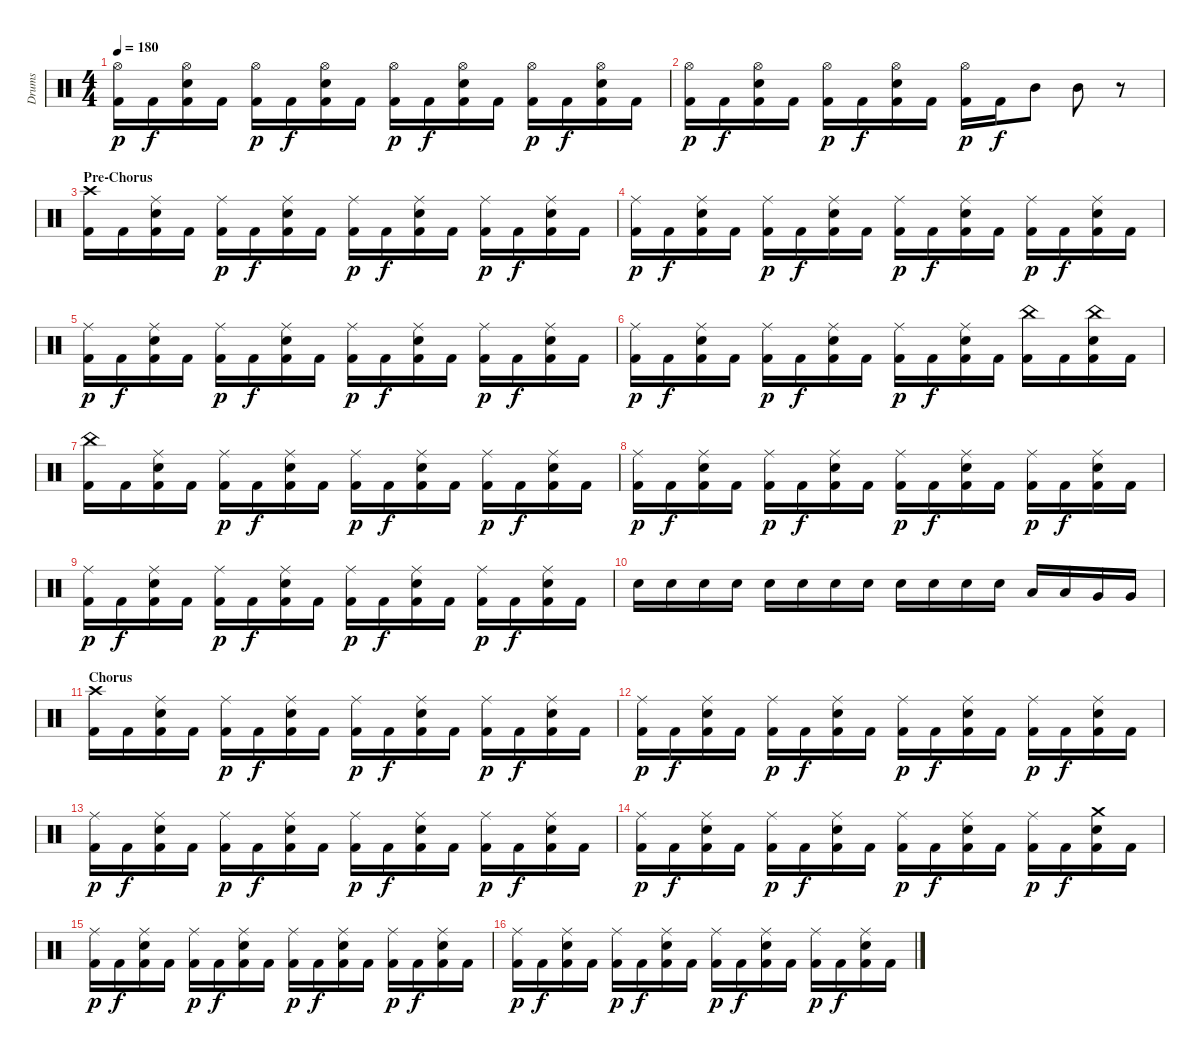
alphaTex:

\track ("Drums" "Drums") {instrument percussion}
\staff {score}
\articulation defaults
\ts (4 4)
\tempo 180
\clef neutral
\ks c
("Hi-Hat (open)" "Kick (hit) 2").16{dy p} "Kick (hit) 2".16{dy f} ("Hi-Hat (open)" "Snare (hit) 2" "Kick (hit) 2").16 "Kick (hit) 2".16 ("Hi-Hat (open)" "Kick (hit) 2").16{dy p} "Kick (hit) 2".16{dy f} ("Hi-Hat (open)" "Snare (hit) 2" "Kick (hit) 2").16 "Kick (hit) 2".16 ("Hi-Hat (open)" "Kick (hit) 2").16{dy p} "Kick (hit) 2".16{dy f} ("Hi-Hat (open)" "Snare (hit) 2" "Kick (hit) 2").16 "Kick (hit) 2".16 ("Hi-Hat (open)" "Kick (hit) 2").16{dy p} "Kick (hit) 2".16{dy f} ("Hi-Hat (open)" "Snare (hit) 2" "Kick (hit) 2").16 "Kick (hit) 2".16 |
("Hi-Hat (open)" "Kick (hit) 2").16{dy p} "Kick (hit) 2".16{dy f} ("Hi-Hat (open)" "Snare (hit) 2" "Kick (hit) 2").16 "Kick (hit) 2".16 ("Hi-Hat (open)" "Kick (hit) 2").16{dy p} "Kick (hit) 2".16{dy f} ("Hi-Hat (open)" "Snare (hit) 2" "Kick (hit) 2").16 "Kick (hit) 2".16 ("Hi-Hat (open)" "Kick (hit) 2").16{dy p} "Kick (hit) 2".16{dy f} "Mid Tom (hit)".8 "Mid Tom (hit)".8 r.8 |
\section ("" "Pre-Chorus")
("Crash high (hit)" "Kick (hit) 2").16 "Kick (hit) 2".16 ("Ride (middle)" "Snare (hit) 2" "Kick (hit) 2").16 "Kick (hit) 2".16 ("Ride (middle)" "Kick (hit) 2").16{dy p} "Kick (hit) 2".16{dy f} ("Ride (middle)" "Snare (hit) 2" "Kick (hit) 2").16 "Kick (hit) 2".16 ("Ride (middle)" "Kick (hit) 2").16{dy p} "Kick (hit) 2".16{dy f} ("Ride (middle)" "Snare (hit) 2" "Kick (hit) 2").16 "Kick (hit) 2".16 ("Ride (middle)" "Kick (hit) 2").16{dy p} "Kick (hit) 2".16{dy f} ("Ride (middle)" "Snare (hit) 2" "Kick (hit) 2").16 "Kick (hit) 2".16 |
("Ride (middle)" "Kick (hit) 2").16{dy p} "Kick (hit) 2".16{dy f} ("Ride (middle)" "Snare (hit) 2" "Kick (hit) 2").16 "Kick (hit) 2".16 ("Ride (middle)" "Kick (hit) 2").16{dy p} "Kick (hit) 2".16{dy f} ("Ride (middle)" "Snare (hit) 2" "Kick (hit) 2").16 "Kick (hit) 2".16 ("Ride (middle)" "Kick (hit) 2").16{dy p} "Kick (hit) 2".16{dy f} ("Ride (middle)" "Snare (hit) 2" "Kick (hit) 2").16 "Kick (hit) 2".16 ("Ride (middle)" "Kick (hit) 2").16{dy p} "Kick (hit) 2".16{dy f} ("Ride (middle)" "Snare (hit) 2" "Kick (hit) 2").16 "Kick (hit) 2".16 |
("Ride (middle)" "Kick (hit) 2").16{dy p} "Kick (hit) 2".16{dy f} ("Ride (middle)" "Snare (hit) 2" "Kick (hit) 2").16 "Kick (hit) 2".16 ("Ride (middle)" "Kick (hit) 2").16{dy p} "Kick (hit) 2".16{dy f} ("Ride (middle)" "Snare (hit) 2" "Kick (hit) 2").16 "Kick (hit) 2".16 ("Ride (middle)" "Kick (hit) 2").16{dy p} "Kick (hit) 2".16{dy f} ("Ride (middle)" "Snare (hit) 2" "Kick (hit) 2").16 "Kick (hit) 2".16 ("Ride (middle)" "Kick (hit) 2").16{dy p} "Kick (hit) 2".16{dy f} ("Ride (middle)" "Snare (hit) 2" "Kick (hit) 2").16 "Kick (hit) 2".16 |
("Ride (middle)" "Kick (hit) 2").16{dy p} "Kick (hit) 2".16{dy f} ("Ride (middle)" "Snare (hit) 2" "Kick (hit) 2").16 "Kick (hit) 2".16 ("Ride (middle)" "Kick (hit) 2").16{dy p} "Kick (hit) 2".16{dy f} ("Ride (middle)" "Snare (hit) 2" "Kick (hit) 2").16 "Kick (hit) 2".16 ("Ride (middle)" "Kick (hit) 2").16{dy p} "Kick (hit) 2".16{dy f} ("Ride (middle)" "Snare (hit) 2" "Kick (hit) 2").16 "Kick (hit) 2".16 ("China (hit)" "Kick (hit) 2").16 "Kick (hit) 2".16 ("China (hit)" "Snare (hit) 2" "Kick (hit) 2").16 "Kick (hit) 2".16 |
("China (hit)" "Kick (hit) 2").16 "Kick (hit) 2".16 ("Ride (middle)" "Snare (hit) 2" "Kick (hit) 2").16 "Kick (hit) 2".16 ("Ride (middle)" "Kick (hit) 2").16{dy p} "Kick (hit) 2".16{dy f} ("Ride (middle)" "Snare (hit) 2" "Kick (hit) 2").16 "Kick (hit) 2".16 ("Ride (middle)" "Kick (hit) 2").16{dy p} "Kick (hit) 2".16{dy f} ("Ride (middle)" "Snare (hit) 2" "Kick (hit) 2").16 "Kick (hit) 2".16 ("Ride (middle)" "Kick (hit) 2").16{dy p} "Kick (hit) 2".16{dy f} ("Ride (middle)" "Snare (hit) 2" "Kick (hit) 2").16 "Kick (hit) 2".16 |
("Ride (middle)" "Kick (hit) 2").16{dy p} "Kick (hit) 2".16{dy f} ("Ride (middle)" "Snare (hit) 2" "Kick (hit) 2").16 "Kick (hit) 2".16 ("Ride (middle)" "Kick (hit) 2").16{dy p} "Kick (hit) 2".16{dy f} ("Ride (middle)" "Snare (hit) 2" "Kick (hit) 2").16 "Kick (hit) 2".16 ("Ride (middle)" "Kick (hit) 2").16{dy p} "Kick (hit) 2".16{dy f} ("Ride (middle)" "Snare (hit) 2" "Kick (hit) 2").16 "Kick (hit) 2".16 ("Ride (middle)" "Kick (hit) 2").16{dy p} "Kick (hit) 2".16{dy f} ("Ride (middle)" "Snare (hit) 2" "Kick (hit) 2").16 "Kick (hit) 2".16 |
("Ride (middle)" "Kick (hit) 2").16{dy p} "Kick (hit) 2".16{dy f} ("Ride (middle)" "Snare (hit) 2" "Kick (hit) 2").16 "Kick (hit) 2".16 ("Ride (middle)" "Kick (hit) 2").16{dy p} "Kick (hit) 2".16{dy f} ("Ride (middle)" "Snare (hit) 2" "Kick (hit) 2").16 "Kick (hit) 2".16 ("Ride (middle)" "Kick (hit) 2").16{dy p} "Kick (hit) 2".16{dy f} ("Ride (middle)" "Snare (hit) 2" "Kick (hit) 2").16 "Kick (hit) 2".16 ("Ride (middle)" "Kick (hit) 2").16{dy p} "Kick (hit) 2".16{dy f} ("Ride (middle)" "Snare (hit) 2" "Kick (hit) 2").16 "Kick (hit) 2".16 |
"Snare (hit) 2".16 "Snare (hit) 2".16 "Snare (hit) 2".16 "Snare (hit) 2".16 "Snare (hit) 2".16 "Snare (hit) 2".16 "Snare (hit) 2".16 "Snare (hit) 2".16 "Snare (hit) 2".16 "Snare (hit) 2".16 "Snare (hit) 2".16 "Snare (hit) 2".16 "Low Tom (hit)".16 "Low Tom (hit)".16 "Very Low Tom (hit)".16 "Very Low Tom (hit)".16 |
\section ("" "Chorus")
("Crash high (hit)" "Kick (hit) 2").16 "Kick (hit) 2".16 ("Ride (middle)" "Snare (hit) 2" "Kick (hit) 2").16 "Kick (hit) 2".16 ("Ride (middle)" "Kick (hit) 2").16{dy p} "Kick (hit) 2".16{dy f} ("Ride (middle)" "Snare (hit) 2" "Kick (hit) 2").16 "Kick (hit) 2".16 ("Ride (middle)" "Kick (hit) 2").16{dy p} "Kick (hit) 2".16{dy f} ("Ride (middle)" "Snare (hit) 2" "Kick (hit) 2").16 "Kick (hit) 2".16 ("Ride (middle)" "Kick (hit) 2").16{dy p} "Kick (hit) 2".16{dy f} ("Ride (middle)" "Snare (hit) 2" "Kick (hit) 2").16 "Kick (hit) 2".16 |
("Ride (middle)" "Kick (hit) 2").16{dy p} "Kick (hit) 2".16{dy f} ("Ride (middle)" "Snare (hit) 2" "Kick (hit) 2").16 "Kick (hit) 2".16 ("Ride (middle)" "Kick (hit) 2").16{dy p} "Kick (hit) 2".16{dy f} ("Ride (middle)" "Snare (hit) 2" "Kick (hit) 2").16 "Kick (hit) 2".16 ("Ride (middle)" "Kick (hit) 2").16{dy p} "Kick (hit) 2".16{dy f} ("Ride (middle)" "Snare (hit) 2" "Kick (hit) 2").16 "Kick (hit) 2".16 ("Ride (middle)" "Kick (hit) 2").16{dy p} "Kick (hit) 2".16{dy f} ("Ride (middle)" "Snare (hit) 2" "Kick (hit) 2").16 "Kick (hit) 2".16 |
("Ride (middle)" "Kick (hit) 2").16{dy p} "Kick (hit) 2".16{dy f} ("Ride (middle)" "Snare (hit) 2" "Kick (hit) 2").16 "Kick (hit) 2".16 ("Ride (middle)" "Kick (hit) 2").16{dy p} "Kick (hit) 2".16{dy f} ("Ride (middle)" "Snare (hit) 2" "Kick (hit) 2").16 "Kick (hit) 2".16 ("Ride (middle)" "Kick (hit) 2").16{dy p} "Kick (hit) 2".16{dy f} ("Ride (middle)" "Snare (hit) 2" "Kick (hit) 2").16 "Kick (hit) 2".16 ("Ride (middle)" "Kick (hit) 2").16{dy p} "Kick (hit) 2".16{dy f} ("Ride (middle)" "Snare (hit) 2" "Kick (hit) 2").16 "Kick (hit) 2".16 |
("Ride (middle)" "Kick (hit) 2").16{dy p} "Kick (hit) 2".16{dy f} ("Ride (middle)" "Snare (hit) 2" "Kick (hit) 2").16 "Kick (hit) 2".16 ("Ride (middle)" "Kick (hit) 2").16{dy p} "Kick (hit) 2".16{dy f} ("Ride (middle)" "Snare (hit) 2" "Kick (hit) 2").16 "Kick (hit) 2".16 ("Ride (middle)" "Kick (hit) 2").16{dy p} "Kick (hit) 2".16{dy f} ("Ride (middle)" "Snare (hit) 2" "Kick (hit) 2").16 "Kick (hit) 2".16 ("Ride (middle)" "Kick (hit) 2").16{dy p} "Kick (hit) 2".16{dy f} ("Crash medium (hit)" "Snare (hit) 2" "Kick (hit) 2").16 "Kick (hit) 2".16 |
("Ride (middle)" "Kick (hit) 2").16{dy p} "Kick (hit) 2".16{dy f} ("Ride (middle)" "Snare (hit) 2" "Kick (hit) 2").16 "Kick (hit) 2".16 ("Ride (middle)" "Kick (hit) 2").16{dy p} "Kick (hit) 2".16{dy f} ("Ride (middle)" "Snare (hit) 2" "Kick (hit) 2").16 "Kick (hit) 2".16 ("Ride (middle)" "Kick (hit) 2").16{dy p} "Kick (hit) 2".16{dy f} ("Ride (middle)" "Snare (hit) 2" "Kick (hit) 2").16 "Kick (hit) 2".16 ("Ride (middle)" "Kick (hit) 2").16{dy p} "Kick (hit) 2".16{dy f} ("Ride (middle)" "Snare (hit) 2" "Kick (hit) 2").16 "Kick (hit) 2".16 |
("Ride (middle)" "Kick (hit) 2").16{dy p} "Kick (hit) 2".16{dy f} ("Ride (middle)" "Snare (hit) 2" "Kick (hit) 2").16 "Kick (hit) 2".16 ("Ride (middle)" "Kick (hit) 2").16{dy p} "Kick (hit) 2".16{dy f} ("Ride (middle)" "Snare (hit) 2" "Kick (hit) 2").16 "Kick (hit) 2".16 ("Ride (middle)" "Kick (hit) 2").16{dy p} "Kick (hit) 2".16{dy f} ("Ride (middle)" "Snare (hit) 2" "Kick (hit) 2").16 "Kick (hit) 2".16 ("Ride (middle)" "Kick (hit) 2").16{dy p} "Kick (hit) 2".16{dy f} ("Ride (middle)" "Snare (hit) 2" "Kick (hit) 2").16 "Kick (hit) 2".16
